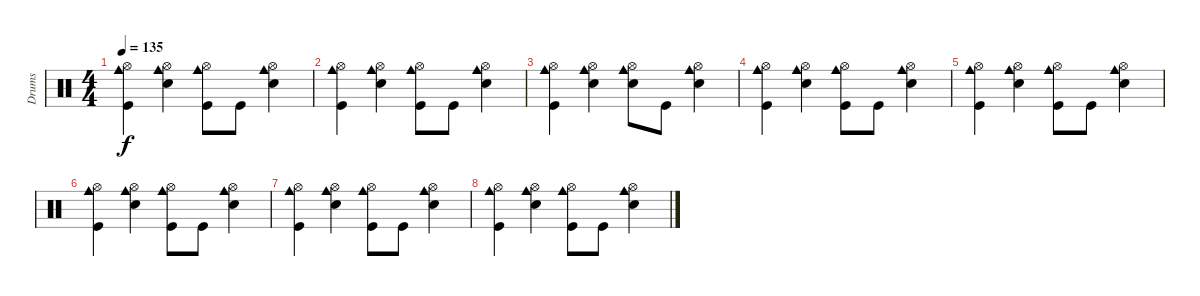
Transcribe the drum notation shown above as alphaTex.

\track ("Drums" "Drums") {instrument percussion}
\staff {score}
\articulation defaults
\ts (4 4)
\tempo 135
\clef neutral
\ks c
("Hi-Hat (open)" "Cowbell medium (hit)" "Kick (hit)").4{dy f} ("Hi-Hat (open)" "Cowbell medium (hit)" "Snare (hit) 2").4 ("Hi-Hat (open)" "Cowbell medium (hit)" "Kick (hit)").8 "Kick (hit)".8 ("Hi-Hat (open)" "Cowbell medium (hit)" "Snare (hit) 2").4 |
("Hi-Hat (open)" "Cowbell medium (hit)" "Kick (hit)").4 ("Hi-Hat (open)" "Cowbell medium (hit)" "Snare (hit) 2").4 ("Hi-Hat (open)" "Cowbell medium (hit)" "Kick (hit)").8 "Kick (hit)".8 ("Hi-Hat (open)" "Cowbell medium (hit)" "Snare (hit) 2").4 |
("Hi-Hat (open)" "Cowbell medium (hit)" "Kick (hit)").4 ("Hi-Hat (open)" "Cowbell medium (hit)" "Snare (hit) 2").4 ("Hi-Hat (open)" "Cowbell medium (hit)" "Snare (hit) 2").8 "Kick (hit)".8 ("Hi-Hat (open)" "Cowbell medium (hit)" "Snare (hit) 2").4 |
("Hi-Hat (open)" "Cowbell medium (hit)" "Kick (hit)").4 ("Hi-Hat (open)" "Cowbell medium (hit)" "Snare (hit) 2").4 ("Hi-Hat (open)" "Cowbell medium (hit)" "Kick (hit)").8 "Kick (hit)".8 ("Hi-Hat (open)" "Cowbell medium (hit)" "Snare (hit) 2").4 |
("Hi-Hat (open)" "Cowbell medium (hit)" "Kick (hit)").4 ("Hi-Hat (open)" "Cowbell medium (hit)" "Snare (hit) 2").4 ("Hi-Hat (open)" "Cowbell medium (hit)" "Kick (hit)").8 "Kick (hit)".8 ("Hi-Hat (open)" "Cowbell medium (hit)" "Snare (hit) 2").4 |
("Hi-Hat (open)" "Cowbell medium (hit)" "Kick (hit)").4 ("Hi-Hat (open)" "Cowbell medium (hit)" "Snare (hit) 2").4 ("Hi-Hat (open)" "Cowbell medium (hit)" "Kick (hit)").8 "Kick (hit)".8 ("Hi-Hat (open)" "Cowbell medium (hit)" "Snare (hit) 2").4 |
("Hi-Hat (open)" "Cowbell medium (hit)" "Kick (hit)").4 ("Hi-Hat (open)" "Cowbell medium (hit)" "Snare (hit) 2").4 ("Hi-Hat (open)" "Cowbell medium (hit)" "Kick (hit)").8 "Kick (hit)".8 ("Hi-Hat (open)" "Cowbell medium (hit)" "Snare (hit) 2").4 |
("Hi-Hat (open)" "Cowbell medium (hit)" "Kick (hit)").4 ("Hi-Hat (open)" "Cowbell medium (hit)" "Snare (hit) 2").4 ("Hi-Hat (open)" "Cowbell medium (hit)" "Kick (hit)").8 "Kick (hit)".8 ("Hi-Hat (open)" "Cowbell medium (hit)" "Snare (hit) 2").4
